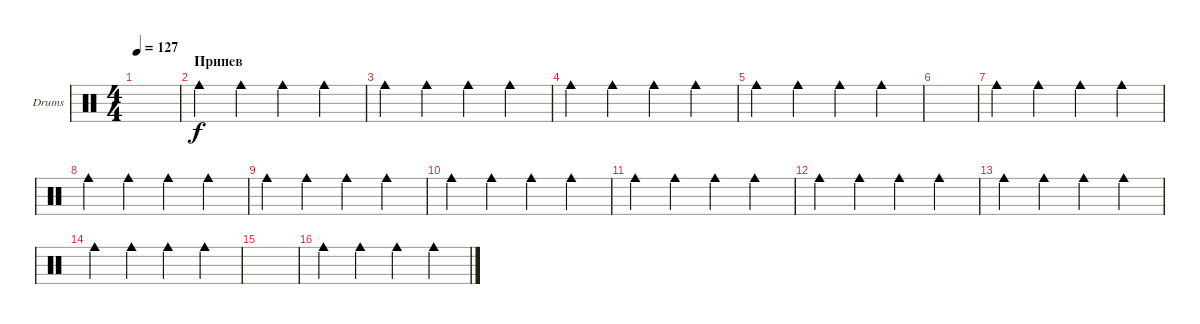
\defaultSystemsLayout 4
\bracketExtendMode groupsimilarinstruments
\firstSystemTrackNameOrientation horizontal
\otherSystemsTrackNameOrientation horizontal
\track ("Drumkit" "Drums") {instrument percussion}
\staff {score}
\articulation defaults
\ts (4 4)
\tempo 127
\clef neutral
\ks c
|
\section ("" "Припев")
"Cowbell medium (hit)".4 "Cowbell medium (hit)".4 "Cowbell medium (hit)".4 "Cowbell medium (hit)".4 |
"Cowbell medium (hit)".4 "Cowbell medium (hit)".4 "Cowbell medium (hit)".4 "Cowbell medium (hit)".4 |
"Cowbell medium (hit)".4 "Cowbell medium (hit)".4 "Cowbell medium (hit)".4 "Cowbell medium (hit)".4 |
"Cowbell medium (hit)".4 "Cowbell medium (hit)".4 "Cowbell medium (hit)".4 "Cowbell medium (hit)".4 |
|
"Cowbell medium (hit)".4 "Cowbell medium (hit)".4 "Cowbell medium (hit)".4 "Cowbell medium (hit)".4 |
"Cowbell medium (hit)".4 "Cowbell medium (hit)".4 "Cowbell medium (hit)".4 "Cowbell medium (hit)".4 |
"Cowbell medium (hit)".4 "Cowbell medium (hit)".4 "Cowbell medium (hit)".4 "Cowbell medium (hit)".4 |
"Cowbell medium (hit)".4 "Cowbell medium (hit)".4 "Cowbell medium (hit)".4 "Cowbell medium (hit)".4 |
"Cowbell medium (hit)".4 "Cowbell medium (hit)".4 "Cowbell medium (hit)".4 "Cowbell medium (hit)".4 |
"Cowbell medium (hit)".4 "Cowbell medium (hit)".4 "Cowbell medium (hit)".4 "Cowbell medium (hit)".4 |
"Cowbell medium (hit)".4 "Cowbell medium (hit)".4 "Cowbell medium (hit)".4 "Cowbell medium (hit)".4 |
"Cowbell medium (hit)".4 "Cowbell medium (hit)".4 "Cowbell medium (hit)".4 "Cowbell medium (hit)".4 |
|
"Cowbell medium (hit)".4 "Cowbell medium (hit)".4 "Cowbell medium (hit)".4 "Cowbell medium (hit)".4
